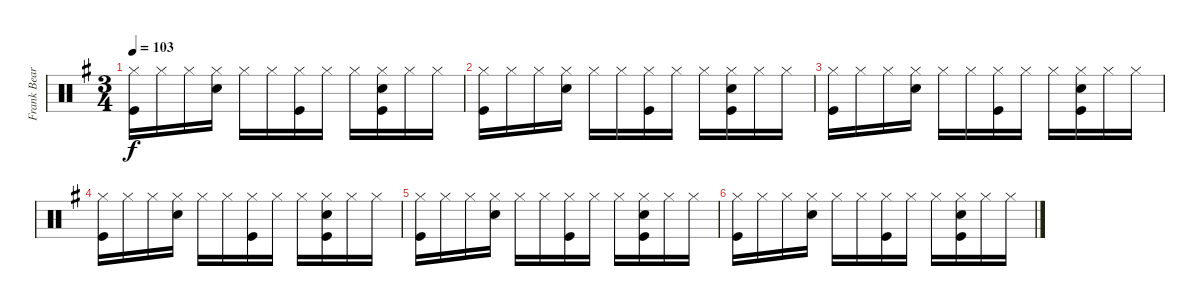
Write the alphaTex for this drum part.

\track ("Frank Beard Drums" "Frank Bear") {instrument percussion}
\staff {score}
\articulation defaults
\ts (3 4)
\tempo 103
\clef neutral
\ks g
("Hi-Hat (closed)" "Kick (hit)").16{dy f} "Hi-Hat (closed)".16 "Hi-Hat (closed)".16 ("Hi-Hat (closed)" "Snare (hit) 2").16 "Hi-Hat (closed)".16 "Hi-Hat (closed)".16 ("Hi-Hat (closed)" "Kick (hit)").16 "Hi-Hat (closed)".16 "Hi-Hat (closed)".16 ("Hi-Hat (closed)" "Snare (hit) 2" "Kick (hit)").16 "Hi-Hat (closed)".16 "Hi-Hat (closed)".16 |
("Hi-Hat (closed)" "Kick (hit)").16 "Hi-Hat (closed)".16 "Hi-Hat (closed)".16 ("Hi-Hat (closed)" "Snare (hit) 2").16 "Hi-Hat (closed)".16 "Hi-Hat (closed)".16 ("Hi-Hat (closed)" "Kick (hit)").16 "Hi-Hat (closed)".16 "Hi-Hat (closed)".16 ("Hi-Hat (closed)" "Snare (hit) 2" "Kick (hit)").16 "Hi-Hat (closed)".16 "Hi-Hat (closed)".16 |
("Hi-Hat (closed)" "Kick (hit)").16 "Hi-Hat (closed)".16 "Hi-Hat (closed)".16 ("Hi-Hat (closed)" "Snare (hit) 2").16 "Hi-Hat (closed)".16 "Hi-Hat (closed)".16 ("Hi-Hat (closed)" "Kick (hit)").16 "Hi-Hat (closed)".16 "Hi-Hat (closed)".16 ("Hi-Hat (closed)" "Snare (hit) 2" "Kick (hit)").16 "Hi-Hat (closed)".16 "Hi-Hat (closed)".16 |
("Hi-Hat (closed)" "Kick (hit)").16 "Hi-Hat (closed)".16 "Hi-Hat (closed)".16 ("Hi-Hat (closed)" "Snare (hit) 2").16 "Hi-Hat (closed)".16 "Hi-Hat (closed)".16 ("Hi-Hat (closed)" "Kick (hit)").16 "Hi-Hat (closed)".16 "Hi-Hat (closed)".16 ("Hi-Hat (closed)" "Snare (hit) 2" "Kick (hit)").16 "Hi-Hat (closed)".16 "Hi-Hat (closed)".16 |
("Hi-Hat (closed)" "Kick (hit)").16 "Hi-Hat (closed)".16 "Hi-Hat (closed)".16 ("Hi-Hat (closed)" "Snare (hit) 2").16 "Hi-Hat (closed)".16 "Hi-Hat (closed)".16 ("Hi-Hat (closed)" "Kick (hit)").16 "Hi-Hat (closed)".16 "Hi-Hat (closed)".16 ("Hi-Hat (closed)" "Snare (hit) 2" "Kick (hit)").16 "Hi-Hat (closed)".16 "Hi-Hat (closed)".16 |
("Hi-Hat (closed)" "Kick (hit)").16 "Hi-Hat (closed)".16 "Hi-Hat (closed)".16 ("Hi-Hat (closed)" "Snare (hit) 2").16 "Hi-Hat (closed)".16 "Hi-Hat (closed)".16 ("Hi-Hat (closed)" "Kick (hit)").16 "Hi-Hat (closed)".16 "Hi-Hat (closed)".16 ("Hi-Hat (closed)" "Snare (hit) 2" "Kick (hit)").16 "Hi-Hat (closed)".16 "Hi-Hat (closed)".16
